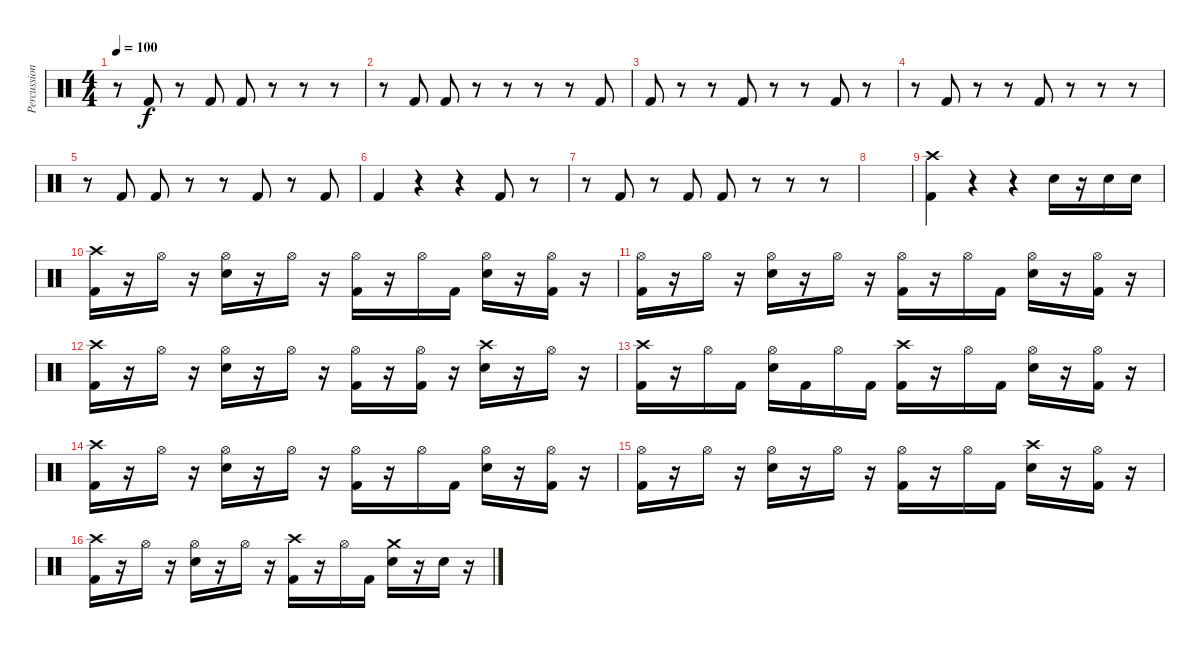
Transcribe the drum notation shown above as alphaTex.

\track ("Percussion" "Percussion") {instrument percussion}
\staff {score}
\articulation defaults
\ts (4 4)
\tempo 100
\clef neutral
\ks c
r.8{dy f} "Kick (hit) 2".8 r.8 "Kick (hit) 2".8 "Kick (hit) 2".8 r.8 r.8 r.8 |
r.8 "Kick (hit) 2".8 "Kick (hit) 2".8 r.8 r.8 r.8 r.8 "Kick (hit) 2".8 |
"Kick (hit) 2".8 r.8 r.8 "Kick (hit) 2".8 r.8 r.8 "Kick (hit) 2".8 r.8 |
r.8 "Kick (hit) 2".8 r.8 r.8 "Kick (hit) 2".8 r.8 r.8 r.8 |
r.8 "Kick (hit) 2".8 "Kick (hit) 2".8 r.8 r.8 "Kick (hit) 2".8 r.8 "Kick (hit) 2".8 |
"Kick (hit) 2".4 r.4 r.4 "Kick (hit) 2".8 r.8 |
r.8 "Kick (hit) 2".8 r.8 "Kick (hit) 2".8 "Kick (hit) 2".8 r.8 r.8 r.8 |
|
("Crash high (hit)" "Kick (hit) 2").4 r.4 r.4 "Snare (hit) 2".16 r.16 "Snare (hit) 2".16 "Snare (hit) 2".16 |
("Crash high (hit)" "Kick (hit) 2").16 r.16 "Hi-Hat (open)".16 r.16 ("Hi-Hat (open)" "Snare (hit) 2").16 r.16 "Hi-Hat (open)".16 r.16 ("Hi-Hat (open)" "Kick (hit) 2").16 r.16 "Hi-Hat (open)".16 "Kick (hit) 2".16 ("Hi-Hat (open)" "Snare (hit) 2").16 r.16 ("Hi-Hat (open)" "Kick (hit) 2").16 r.16 |
("Hi-Hat (open)" "Kick (hit) 2").16 r.16 "Hi-Hat (open)".16 r.16 ("Hi-Hat (open)" "Snare (hit) 2").16 r.16 "Hi-Hat (open)".16 r.16 ("Hi-Hat (open)" "Kick (hit) 2").16 r.16 "Hi-Hat (open)".16 "Kick (hit) 2".16 ("Hi-Hat (open)" "Snare (hit) 2").16 r.16 ("Hi-Hat (open)" "Kick (hit) 2").16 r.16 |
("Crash high (hit)" "Kick (hit) 2").16 r.16 "Hi-Hat (open)".16 r.16 ("Hi-Hat (open)" "Snare (hit) 2").16 r.16 "Hi-Hat (open)".16 r.16 ("Hi-Hat (open)" "Kick (hit) 2").16 r.16 ("Hi-Hat (open)" "Kick (hit) 2").16 r.16 ("Crash high (hit)" "Snare (hit) 2").16 r.16 "Hi-Hat (open)".16 r.16 |
("Crash high (hit)" "Kick (hit) 2").16 r.16 "Hi-Hat (open)".16 "Kick (hit) 2".16 ("Hi-Hat (open)" "Snare (hit) 2").16 "Kick (hit) 2".16 "Hi-Hat (open)".16 "Kick (hit) 2".16 ("Crash high (hit)" "Kick (hit) 2").16 r.16 "Hi-Hat (open)".16 "Kick (hit) 2".16 ("Hi-Hat (open)" "Snare (hit) 2").16 r.16 ("Hi-Hat (open)" "Kick (hit) 2").16 r.16 |
("Crash high (hit)" "Kick (hit) 2").16 r.16 "Hi-Hat (open)".16 r.16 ("Hi-Hat (open)" "Snare (hit) 2").16 r.16 "Hi-Hat (open)".16 r.16 ("Hi-Hat (open)" "Kick (hit) 2").16 r.16 "Hi-Hat (open)".16 "Kick (hit) 2".16 ("Hi-Hat (open)" "Snare (hit) 2").16 r.16 ("Hi-Hat (open)" "Kick (hit) 2").16 r.16 |
("Hi-Hat (open)" "Kick (hit) 2").16 r.16 "Hi-Hat (open)".16 r.16 ("Hi-Hat (open)" "Snare (hit) 2").16 r.16 "Hi-Hat (open)".16 r.16 ("Hi-Hat (open)" "Kick (hit) 2").16 r.16 "Hi-Hat (open)".16 "Kick (hit) 2".16 ("Crash high (hit)" "Snare (hit) 2").16 r.16 ("Hi-Hat (open)" "Kick (hit) 2").16 r.16 |
("Crash high (hit)" "Kick (hit) 2").16 r.16 "Hi-Hat (open)".16 r.16 ("Hi-Hat (open)" "Snare (hit) 2").16 r.16 "Hi-Hat (open)".16 r.16 ("Crash high (hit)" "Kick (hit) 2").16 r.16 "Hi-Hat (open)".16 "Kick (hit) 2".16 ("Crash medium (hit)" "Snare (hit) 2").16 r.16 "Snare (hit) 2".16 r.16
